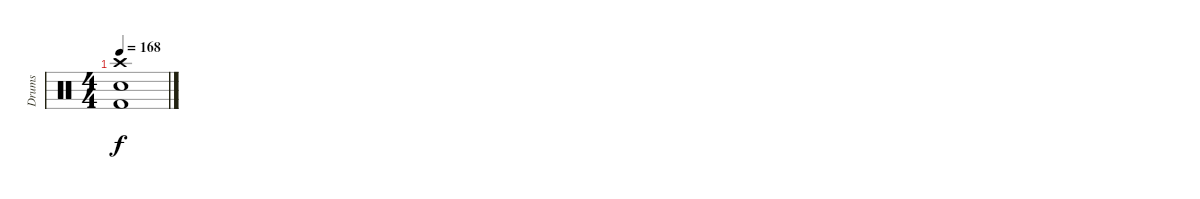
\track ("Drums" "Drums") {instrument percussion}
\staff {score}
\articulation defaults
\ts (4 4)
\tempo 168
\clef neutral
\ks c
("Crash high (hit)" "Snare (hit) 2" "Kick (hit) 2").1{dy f}
